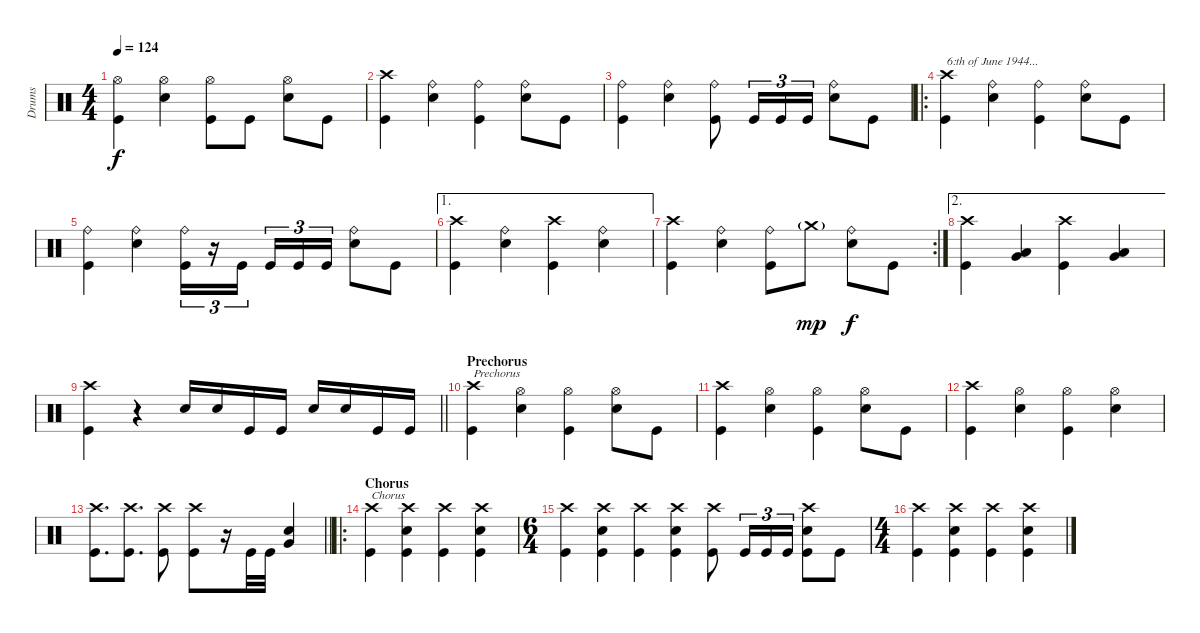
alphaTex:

\track ("Drums" "Drums") {instrument percussion}
\staff {score}
\articulation defaults
\ts (4 4)
\tempo 124
\clef neutral
\ks c
("Hi-Hat (open)" "Kick (hit)").4{dy f} ("Hi-Hat (open)" "Snare (hit) 2").4 ("Hi-Hat (open)" "Kick (hit)").8 "Kick (hit)".8 ("Hi-Hat (open)" "Snare (hit) 2").8 "Kick (hit)".8 |
("Crash high (hit)" "Kick (hit)").4 ("Ride (bell)" "Snare (hit) 2").4 ("Ride (bell)" "Kick (hit)").4 ("Ride (bell)" "Snare (hit) 2").8 "Kick (hit)".8 |
("Ride (bell)" "Kick (hit)").4 ("Ride (bell)" "Snare (hit) 2").4 ("Ride (bell)" "Kick (hit)").8 "Kick (hit)".16{tu (3 2)} "Kick (hit)".16{tu (3 2)} "Kick (hit)".16{tu (3 2)} ("Ride (bell)" "Snare (hit) 2").8 "Kick (hit)".8 |
\ro
("Crash high (hit)" "Kick (hit)").4{txt "6:th of June 1944..."} ("Ride (bell)" "Snare (hit) 2").4 ("Ride (bell)" "Kick (hit)").4 ("Ride (bell)" "Snare (hit) 2").8 "Kick (hit)".8 |
("Ride (bell)" "Kick (hit)").4 ("Ride (bell)" "Snare (hit) 2").4 ("Ride (bell)" "Kick (hit)").16{tu (3 2)} r.16{tu (3 2)} "Kick (hit)".16{tu (3 2)} "Kick (hit)".16{tu (3 2)} "Kick (hit)".16{tu (3 2)} "Kick (hit)".16{tu (3 2)} ("Ride (bell)" "Snare (hit) 2").8 "Kick (hit)".8 |
\ae 1
("Crash high (hit)" "Kick (hit)").4 ("Ride (bell)" "Snare (hit) 2").4 ("Crash high (hit)" "Kick (hit)").4 ("Ride (bell)" "Snare (hit) 2").4 |
\rc 2
("Crash high (hit)" "Kick (hit)").4 ("Ride (bell)" "Snare (hit) 2").4 ("Ride (bell)" "Kick (hit)").8 "Crash medium (hit)"{g}.8{dy mp} ("Ride (bell)" "Snare (hit) 2").8{dy f} "Kick (hit)".8 |
\ae 2
("Crash high (hit)" "Kick (hit)").4 ("Very Low Tom (hit)" "Low Tom (hit)").4 ("Crash high (hit)" "Kick (hit)").4 ("Very Low Tom (hit)" "Low Tom (hit)").4 |
\barLineRight lightlight
("Crash high (hit)" "Kick (hit)").4 r.4 "Snare (hit) 2".16 "Snare (hit) 2".16 "Kick (hit)".16 "Kick (hit)".16 "Snare (hit) 2".16 "Snare (hit) 2".16 "Kick (hit)".16 "Kick (hit)".16 |
\section ("" "Prechorus")
("Crash high (hit)" "Kick (hit)").4{txt "Prechorus"} ("Hi-Hat (open)" "Snare (hit) 2").4 ("Hi-Hat (open)" "Kick (hit)").4 ("Hi-Hat (open)" "Snare (hit) 2").8 "Kick (hit)".8 |
("Crash high (hit)" "Kick (hit)").4 ("Hi-Hat (open)" "Snare (hit) 2").4 ("Hi-Hat (open)" "Kick (hit)").4 ("Hi-Hat (open)" "Snare (hit) 2").8 "Kick (hit)".8 |
("Crash high (hit)" "Kick (hit)").4 ("Hi-Hat (open)" "Snare (hit) 2").4 ("Hi-Hat (open)" "Kick (hit)").4 ("Hi-Hat (open)" "Snare (hit) 2").4 |
\barLineRight lightlight
("Crash high (hit)" "Kick (hit)").8{d} ("Crash high (hit)" "Kick (hit)").8{d} ("Crash high (hit)" "Kick (hit)").8 ("Crash high (hit)" "Kick (hit)").8 r.16 "Kick (hit)".32 "Kick (hit)".32 ("Snare (hit) 2" "Very Low Tom (hit)").4 |
\ro
\section ("" "Chorus")
("Crash high (hit)" "Kick (hit)").4{txt "Chorus"} ("Crash high (hit)" "Snare (hit) 2" "Kick (hit)").4 ("Crash high (hit)" "Kick (hit)").4 ("Crash high (hit)" "Snare (hit) 2" "Kick (hit)").4 |
\ts (6 4)
("Crash high (hit)" "Kick (hit)").4 ("Crash high (hit)" "Snare (hit) 2" "Kick (hit)").4 ("Crash high (hit)" "Kick (hit)").4 ("Crash high (hit)" "Snare (hit) 2" "Kick (hit)").4 ("Crash high (hit)" "Kick (hit)").8 "Kick (hit)".16{tu (3 2)} "Kick (hit)".16{tu (3 2)} "Kick (hit)".16{tu (3 2)} ("Crash high (hit)" "Snare (hit) 2" "Kick (hit)").8 "Kick (hit)".8 |
\ts (4 4)
("Crash high (hit)" "Kick (hit)").4 ("Crash high (hit)" "Snare (hit) 2" "Kick (hit)").4 ("Crash high (hit)" "Kick (hit)").4 ("Crash high (hit)" "Snare (hit) 2" "Kick (hit)").4
